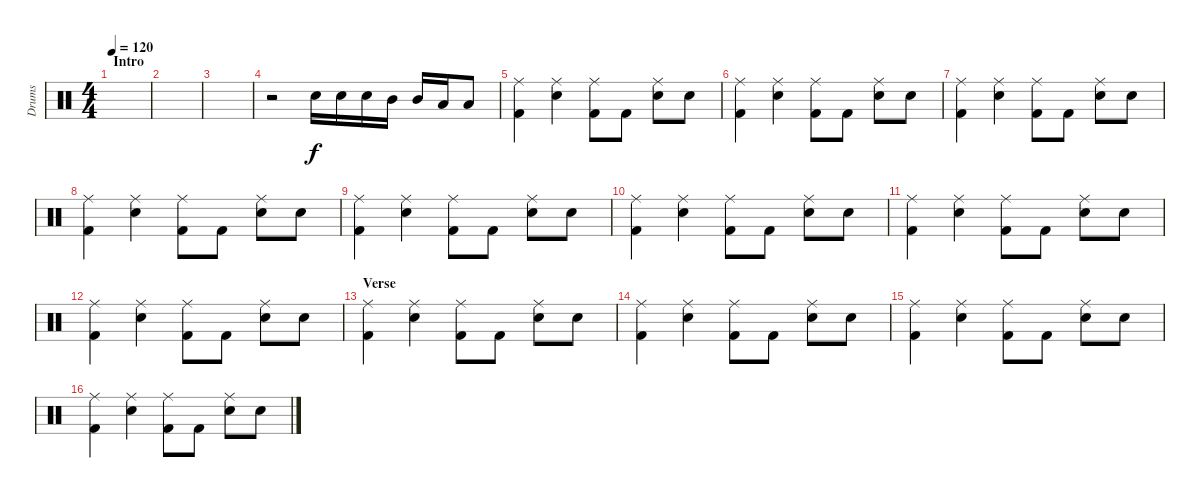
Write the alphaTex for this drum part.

\track ("Drums" "Drums") {instrument percussion}
\staff {score}
\articulation defaults
\ts (4 4)
\section ("" "Intro")
\tempo 120
\clef neutral
\ks c
|
|
|
r.2 "Snare (hit) 2".16 "Snare (hit) 2".16 "Snare (hit) 2".16 "Mid Tom (hit)".16 "Mid Tom (hit)".16 "Low Tom (hit)".16 "Low Tom (hit)".8 |
("Ride (middle)" "Kick (hit) 2").4 ("Ride (middle)" "Snare (hit) 2").4 ("Ride (middle)" "Kick (hit) 2").8 "Kick (hit) 2".8 ("Ride (middle)" "Snare (hit) 2").8 "Snare (hit) 2".8 |
("Ride (middle)" "Kick (hit) 2").4 ("Ride (middle)" "Snare (hit) 2").4 ("Ride (middle)" "Kick (hit) 2").8 "Kick (hit) 2".8 ("Ride (middle)" "Snare (hit) 2").8 "Snare (hit) 2".8 |
("Ride (middle)" "Kick (hit) 2").4 ("Ride (middle)" "Snare (hit) 2").4 ("Ride (middle)" "Kick (hit) 2").8 "Kick (hit) 2".8 ("Ride (middle)" "Snare (hit) 2").8 "Snare (hit) 2".8 |
("Ride (middle)" "Kick (hit) 2").4 ("Ride (middle)" "Snare (hit) 2").4 ("Ride (middle)" "Kick (hit) 2").8 "Kick (hit) 2".8 ("Ride (middle)" "Snare (hit) 2").8 "Snare (hit) 2".8 |
("Ride (middle)" "Kick (hit) 2").4 ("Ride (middle)" "Snare (hit) 2").4 ("Ride (middle)" "Kick (hit) 2").8 "Kick (hit) 2".8 ("Ride (middle)" "Snare (hit) 2").8 "Snare (hit) 2".8 |
("Ride (middle)" "Kick (hit) 2").4 ("Ride (middle)" "Snare (hit) 2").4 ("Ride (middle)" "Kick (hit) 2").8 "Kick (hit) 2".8 ("Ride (middle)" "Snare (hit) 2").8 "Snare (hit) 2".8 |
("Ride (middle)" "Kick (hit) 2").4 ("Ride (middle)" "Snare (hit) 2").4 ("Ride (middle)" "Kick (hit) 2").8 "Kick (hit) 2".8 ("Ride (middle)" "Snare (hit) 2").8 "Snare (hit) 2".8 |
("Ride (middle)" "Kick (hit) 2").4 ("Ride (middle)" "Snare (hit) 2").4 ("Ride (middle)" "Kick (hit) 2").8 "Kick (hit) 2".8 ("Ride (middle)" "Snare (hit) 2").8 "Snare (hit) 2".8 |
\section ("" "Verse")
("Ride (middle)" "Kick (hit) 2").4 ("Ride (middle)" "Snare (hit) 2").4 ("Ride (middle)" "Kick (hit) 2").8 "Kick (hit) 2".8 ("Ride (middle)" "Snare (hit) 2").8 "Snare (hit) 2".8 |
("Ride (middle)" "Kick (hit) 2").4 ("Ride (middle)" "Snare (hit) 2").4 ("Ride (middle)" "Kick (hit) 2").8 "Kick (hit) 2".8 ("Ride (middle)" "Snare (hit) 2").8 "Snare (hit) 2".8 |
("Ride (middle)" "Kick (hit) 2").4 ("Ride (middle)" "Snare (hit) 2").4 ("Ride (middle)" "Kick (hit) 2").8 "Kick (hit) 2".8 ("Ride (middle)" "Snare (hit) 2").8 "Snare (hit) 2".8 |
("Ride (middle)" "Kick (hit) 2").4 ("Ride (middle)" "Snare (hit) 2").4 ("Ride (middle)" "Kick (hit) 2").8 "Kick (hit) 2".8 ("Ride (middle)" "Snare (hit) 2").8 "Snare (hit) 2".8
